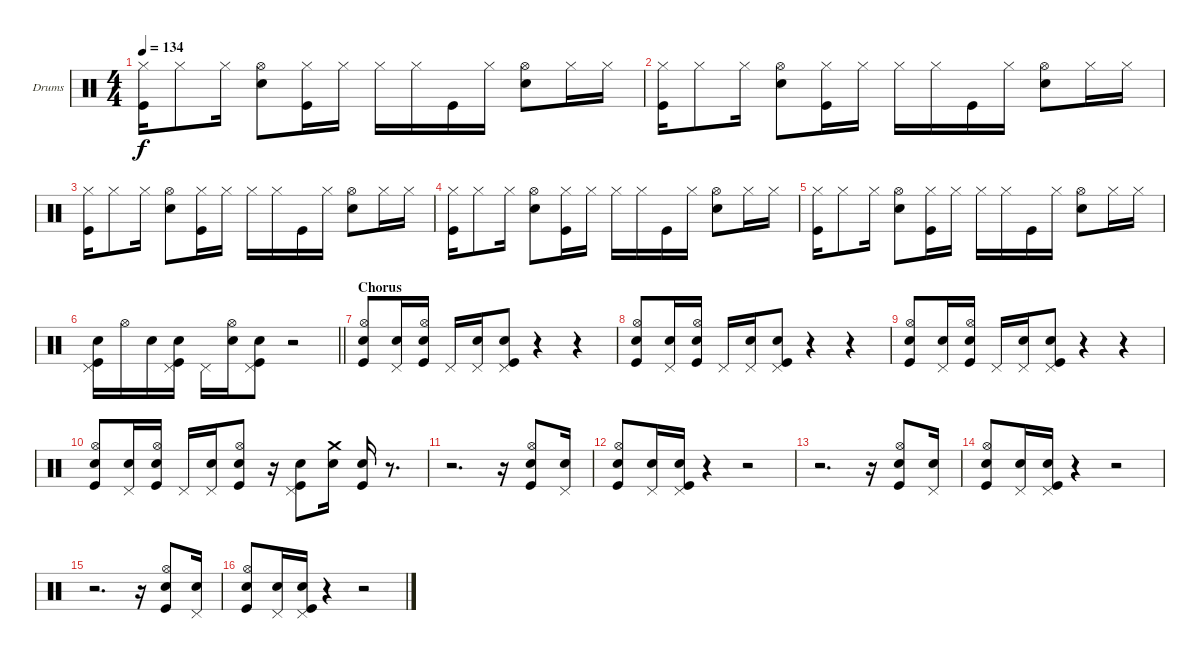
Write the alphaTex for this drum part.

\bracketExtendMode groupsimilarinstruments
\firstSystemTrackNameOrientation horizontal
\otherSystemsTrackNameOrientation horizontal
\track ("Drumkit" "Drums") {instrument percussion}
\staff {score}
\articulation defaults
\ts (4 4)
\tempo 134
\clef neutral
\ks c
("Hi-Hat (closed)" "Kick (hit)").16{dy f} "Hi-Hat (closed)".8 "Hi-Hat (closed)".16 ("Hi-Hat (open)" "Snare (hit) 2").8 ("Hi-Hat (closed)" "Kick (hit)").16 "Hi-Hat (closed)".16 "Hi-Hat (closed)".16 "Hi-Hat (closed)".16 "Kick (hit)".16 "Hi-Hat (closed)".16 ("Hi-Hat (open)" "Snare (hit) 2").8 "Hi-Hat (closed)".16 "Hi-Hat (closed)".16 |
("Hi-Hat (closed)" "Kick (hit)").16 "Hi-Hat (closed)".8 "Hi-Hat (closed)".16 ("Hi-Hat (open)" "Snare (hit) 2").8 ("Hi-Hat (closed)" "Kick (hit)").16 "Hi-Hat (closed)".16 "Hi-Hat (closed)".16 "Hi-Hat (closed)".16 "Kick (hit)".16 "Hi-Hat (closed)".16 ("Hi-Hat (open)" "Snare (hit) 2").8 "Hi-Hat (closed)".16 "Hi-Hat (closed)".16 |
("Hi-Hat (closed)" "Kick (hit)").16 "Hi-Hat (closed)".8 "Hi-Hat (closed)".16 ("Hi-Hat (open)" "Snare (hit) 2").8 ("Hi-Hat (closed)" "Kick (hit)").16 "Hi-Hat (closed)".16 "Hi-Hat (closed)".16 "Hi-Hat (closed)".16 "Kick (hit)".16 "Hi-Hat (closed)".16 ("Hi-Hat (open)" "Snare (hit) 2").8 "Hi-Hat (closed)".16 "Hi-Hat (closed)".16 |
("Hi-Hat (closed)" "Kick (hit)").16 "Hi-Hat (closed)".8 "Hi-Hat (closed)".16 ("Hi-Hat (open)" "Snare (hit) 2").8 ("Hi-Hat (closed)" "Kick (hit)").16 "Hi-Hat (closed)".16 "Hi-Hat (closed)".16 "Hi-Hat (closed)".16 "Kick (hit)".16 "Hi-Hat (closed)".16 ("Hi-Hat (open)" "Snare (hit) 2").8 "Hi-Hat (closed)".16 "Hi-Hat (closed)".16 |
("Hi-Hat (closed)" "Kick (hit)").16 "Hi-Hat (closed)".8 "Hi-Hat (closed)".16 ("Hi-Hat (open)" "Snare (hit) 2").8 ("Hi-Hat (closed)" "Kick (hit)").16 "Hi-Hat (closed)".16 "Hi-Hat (closed)".16 "Hi-Hat (closed)".16 "Kick (hit)".16 "Hi-Hat (closed)".16 ("Hi-Hat (open)" "Snare (hit) 2").8 "Hi-Hat (closed)".16 "Hi-Hat (closed)".16 |
\barLineRight lightlight
("Pedal Hi-Hat (hit)" "Snare (hit) 2" "Kick (hit)").16 "Hi-Hat (open)".16 "Snare (hit) 2".16 ("Pedal Hi-Hat (hit)" "Snare (hit) 2" "Kick (hit)").16 "Pedal Hi-Hat (hit)".16 ("Hi-Hat (open)" "Snare (hit) 2").16 ("Pedal Hi-Hat (hit)" "Snare (hit) 2" "Kick (hit)").8 r.2 |
\section ("" "Chorus")
("Hi-Hat (open)" "Snare (hit) 2" "Kick (hit)").8 ("Pedal Hi-Hat (hit)" "Snare (hit) 2").16 ("Hi-Hat (open)" "Snare (hit) 2" "Kick (hit)").16 "Pedal Hi-Hat (hit)".16 ("Pedal Hi-Hat (hit)" "Snare (hit) 2").16 ("Pedal Hi-Hat (hit)" "Snare (hit) 2" "Kick (hit)").8 r.4 r.4 |
("Hi-Hat (open)" "Snare (hit) 2" "Kick (hit)").8 ("Pedal Hi-Hat (hit)" "Snare (hit) 2").16 ("Hi-Hat (open)" "Snare (hit) 2" "Kick (hit)").16 "Pedal Hi-Hat (hit)".16 ("Pedal Hi-Hat (hit)" "Snare (hit) 2").16 ("Pedal Hi-Hat (hit)" "Snare (hit) 2" "Kick (hit)").8 r.4 r.4 |
("Hi-Hat (open)" "Snare (hit) 2" "Kick (hit)").8 ("Pedal Hi-Hat (hit)" "Snare (hit) 2").16 ("Hi-Hat (open)" "Snare (hit) 2" "Kick (hit)").16 "Pedal Hi-Hat (hit)".16 ("Pedal Hi-Hat (hit)" "Snare (hit) 2").16 ("Pedal Hi-Hat (hit)" "Snare (hit) 2" "Kick (hit)").8 r.4 r.4 |
("Hi-Hat (open)" "Snare (hit) 2" "Kick (hit)").8 ("Pedal Hi-Hat (hit)" "Snare (hit) 2").16 ("Hi-Hat (open)" "Snare (hit) 2" "Kick (hit)").16 "Pedal Hi-Hat (hit)".16 ("Pedal Hi-Hat (hit)" "Snare (hit) 2").16 ("Hi-Hat (open)" "Snare (hit) 2" "Kick (hit)").8 r.16 ("Pedal Hi-Hat (hit)" "Snare (hit) 2" "Kick (hit)").8 ("Crash medium (hit)" "Snare (hit) 2").16 ("Snare (hit) 2" "Kick (hit)").16 r.8{d} |
r.2{d} r.16 ("Hi-Hat (open)" "Snare (hit) 2" "Kick (hit)").8 ("Pedal Hi-Hat (hit)" "Snare (hit) 2").16 |
("Hi-Hat (open)" "Snare (hit) 2" "Kick (hit)").8 ("Pedal Hi-Hat (hit)" "Snare (hit) 2").16 ("Pedal Hi-Hat (hit)" "Snare (hit) 2" "Kick (hit)").16 r.4 r.2 |
r.2{d} r.16 ("Hi-Hat (open)" "Snare (hit) 2" "Kick (hit)").8 ("Pedal Hi-Hat (hit)" "Snare (hit) 2").16 |
("Hi-Hat (open)" "Snare (hit) 2" "Kick (hit)").8 ("Pedal Hi-Hat (hit)" "Snare (hit) 2").16 ("Pedal Hi-Hat (hit)" "Snare (hit) 2" "Kick (hit)").16 r.4 r.2 |
r.2{d} r.16 ("Hi-Hat (open)" "Snare (hit) 2" "Kick (hit)").8 ("Pedal Hi-Hat (hit)" "Snare (hit) 2").16 |
("Hi-Hat (open)" "Snare (hit) 2" "Kick (hit)").8 ("Pedal Hi-Hat (hit)" "Snare (hit) 2").16 ("Pedal Hi-Hat (hit)" "Snare (hit) 2" "Kick (hit)").16 r.4 r.2
